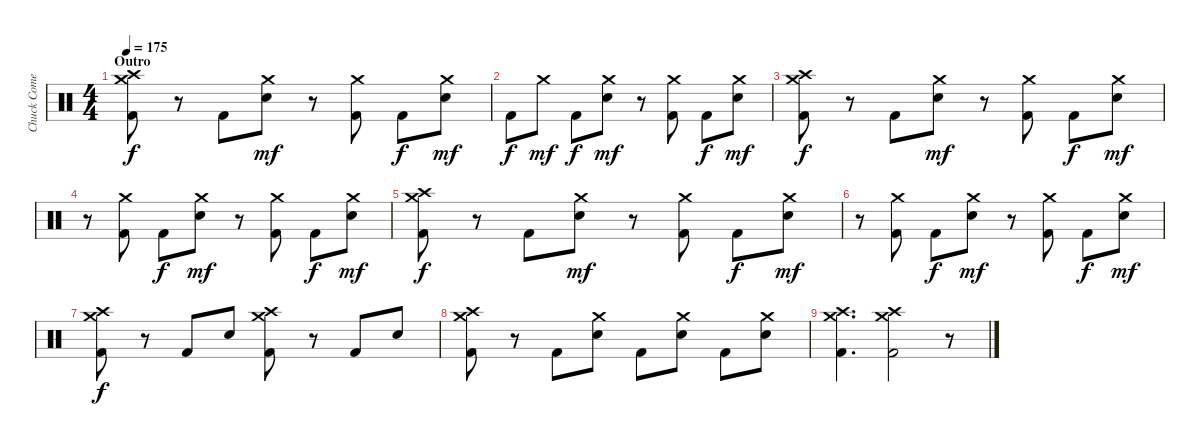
\track ("Chuck Comeau" "Chuck Come") {instrument percussion}
\staff {score}
\articulation defaults
\ts (4 4)
\section ("" "Outro")
\tempo 175
\clef neutral
\ks c
("Crash high (hit)" "Crash medium (hit)" "Kick (hit) 2").8{dy f} r.8 "Kick (hit) 2".8 ("Crash medium (hit)" "Electric Snare (hit)").8{dy mf} r.8 ("Crash medium (hit)" "Kick (hit) 2").8 "Kick (hit) 2".8{dy f} ("Crash medium (hit)" "Electric Snare (hit)").8{dy mf} |
"Kick (hit) 2".8{dy f} "Crash medium (hit)".8{dy mf} "Kick (hit) 2".8{dy f} ("Crash medium (hit)" "Electric Snare (hit)").8{dy mf} r.8 ("Crash medium (hit)" "Kick (hit) 2").8 "Kick (hit) 2".8{dy f} ("Crash medium (hit)" "Electric Snare (hit)").8{dy mf} |
("Crash high (hit)" "Crash medium (hit)" "Kick (hit) 2").8{dy f} r.8 "Kick (hit) 2".8 ("Crash medium (hit)" "Electric Snare (hit)").8{dy mf} r.8 ("Crash medium (hit)" "Kick (hit) 2").8 "Kick (hit) 2".8{dy f} ("Crash medium (hit)" "Electric Snare (hit)").8{dy mf} |
r.8 ("Crash medium (hit)" "Kick (hit) 2").8 "Kick (hit) 2".8{dy f} ("Crash medium (hit)" "Electric Snare (hit)").8{dy mf} r.8 ("Crash medium (hit)" "Kick (hit) 2").8 "Kick (hit) 2".8{dy f} ("Crash medium (hit)" "Electric Snare (hit)").8{dy mf} |
("Crash high (hit)" "Crash medium (hit)" "Kick (hit) 2").8{dy f} r.8 "Kick (hit) 2".8 ("Crash medium (hit)" "Electric Snare (hit)").8{dy mf} r.8 ("Crash medium (hit)" "Kick (hit) 2").8 "Kick (hit) 2".8{dy f} ("Crash medium (hit)" "Electric Snare (hit)").8{dy mf} |
r.8 ("Crash medium (hit)" "Kick (hit) 2").8 "Kick (hit) 2".8{dy f} ("Crash medium (hit)" "Electric Snare (hit)").8{dy mf} r.8 ("Crash medium (hit)" "Kick (hit) 2").8 "Kick (hit) 2".8{dy f} ("Crash medium (hit)" "Electric Snare (hit)").8{dy mf} |
("Crash high (hit)" "Crash medium (hit)" "Kick (hit) 2").8{dy f} r.8 "Kick (hit) 2".8 "Electric Snare (hit)".8 ("Crash high (hit)" "Crash medium (hit)" "Kick (hit) 2").8 r.8 "Kick (hit) 2".8 "Electric Snare (hit)".8 |
("Crash high (hit)" "Crash medium (hit)" "Kick (hit) 2").8 r.8 "Kick (hit) 2".8 ("Crash medium (hit)" "Electric Snare (hit)").8 "Kick (hit) 2".8 ("Crash medium (hit)" "Electric Snare (hit)").8 "Kick (hit) 2".8 ("Crash medium (hit)" "Electric Snare (hit)").8 |
("Crash high (hit)" "Crash medium (hit)" "Kick (hit) 2").4{d} ("Crash high (hit)" "Crash medium (hit)" "Kick (hit) 2").2 r.8
